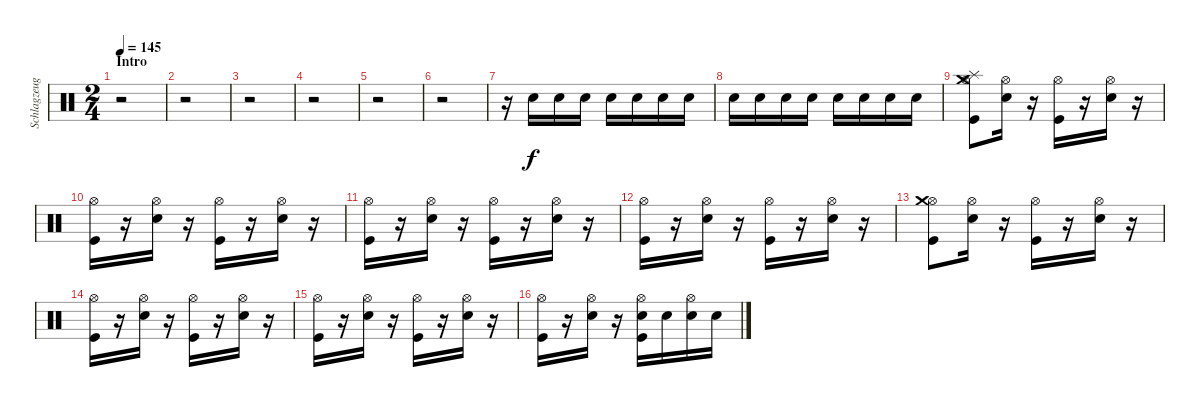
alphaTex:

\track ("Schlagzeug - Bela B." "Schlagzeug") {instrument percussion}
\staff {score}
\articulation defaults
\ts (2 4)
\section ("" "Intro")
\tempo 145
\clef neutral
\ks c
r.2{dy f} |
r.2 |
r.2 |
r.2 |
r.2 |
r.2 |
r.16 "Electric Snare (hit)".16 "Electric Snare (hit)".16 "Electric Snare (hit)".16 "Electric Snare (hit)".16 "Electric Snare (hit)".16 "Electric Snare (hit)".16 "Electric Snare (hit)".16 |
"Electric Snare (hit)".16 "Electric Snare (hit)".16 "Electric Snare (hit)".16 "Electric Snare (hit)".16 "Electric Snare (hit)".16 "Electric Snare (hit)".16 "Electric Snare (hit)".16 "Electric Snare (hit)".16 |
("Kick (hit)" "Hi-Hat (open)" "Splash (hit)" "Crash medium (hit)").8 ("Electric Snare (hit)" "Hi-Hat (open)").16 r.16 ("Kick (hit)" "Hi-Hat (open)").16 r.16 ("Electric Snare (hit)" "Hi-Hat (open)").16 r.16 |
("Kick (hit)" "Hi-Hat (open)").16 r.16 ("Electric Snare (hit)" "Hi-Hat (open)").16 r.16 ("Kick (hit)" "Hi-Hat (open)").16 r.16 ("Electric Snare (hit)" "Hi-Hat (open)").16 r.16 |
("Kick (hit)" "Hi-Hat (open)").16 r.16 ("Electric Snare (hit)" "Hi-Hat (open)").16 r.16 ("Kick (hit)" "Hi-Hat (open)").16 r.16 ("Electric Snare (hit)" "Hi-Hat (open)").16 r.16 |
("Kick (hit)" "Hi-Hat (open)").16 r.16 ("Electric Snare (hit)" "Hi-Hat (open)").16 r.16 ("Kick (hit)" "Hi-Hat (open)").16 r.16 ("Electric Snare (hit)" "Hi-Hat (open)").16 r.16 |
("Kick (hit)" "Hi-Hat (open)" "Crash medium (hit)").8 ("Electric Snare (hit)" "Hi-Hat (open)").16 r.16 ("Kick (hit)" "Hi-Hat (open)").16 r.16 ("Electric Snare (hit)" "Hi-Hat (open)").16 r.16 |
("Kick (hit)" "Hi-Hat (open)").16 r.16 ("Electric Snare (hit)" "Hi-Hat (open)").16 r.16 ("Kick (hit)" "Hi-Hat (open)").16 r.16 ("Electric Snare (hit)" "Hi-Hat (open)").16 r.16 |
("Kick (hit)" "Hi-Hat (open)").16 r.16 ("Electric Snare (hit)" "Hi-Hat (open)").16 r.16 ("Kick (hit)" "Hi-Hat (open)").16 r.16 ("Electric Snare (hit)" "Hi-Hat (open)").16 r.16 |
("Kick (hit)" "Hi-Hat (open)").16 r.16 ("Electric Snare (hit)" "Hi-Hat (open)").16 r.16 ("Kick (hit)" "Hi-Hat (open)" "Electric Snare (hit)").16 "Electric Snare (hit)".16 ("Electric Snare (hit)" "Hi-Hat (open)").16 "Electric Snare (hit)".16
